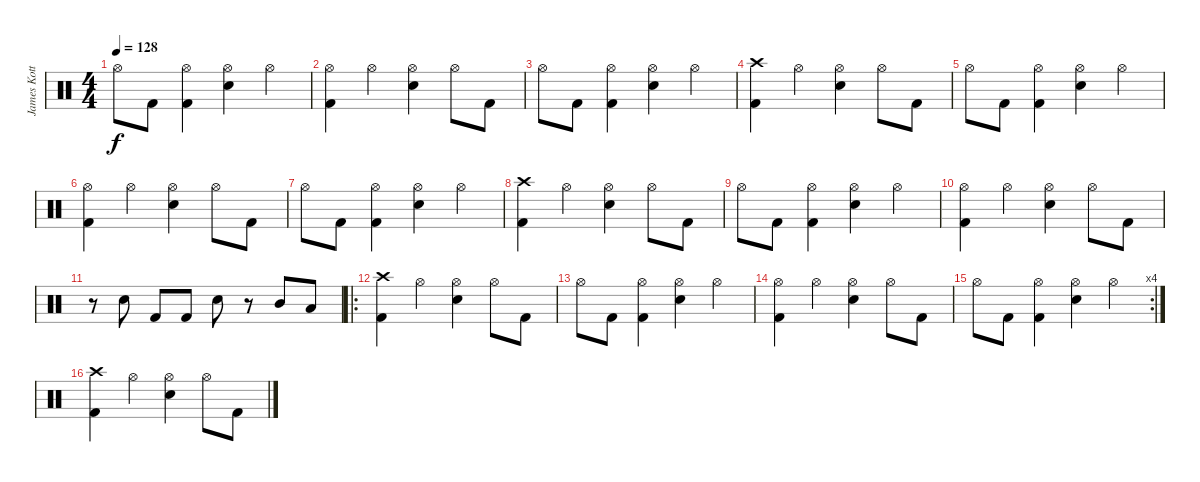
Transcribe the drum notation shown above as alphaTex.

\track ("James Kottak" "James Kott") {instrument percussion}
\staff {score}
\articulation defaults
\ts (4 4)
\tempo 128
\clef neutral
\ks c "Hi-Hat (open)".8{dy f} "Kick (hit) 2".8
("Hi-Hat (open)" "Kick (hit) 2").4 ("Hi-Hat (open)" "Electric Snare (hit)").4 "Hi-Hat (open)".4 |
("Hi-Hat (open)" "Kick (hit) 2").4 "Hi-Hat (open)".4 ("Hi-Hat (open)" "Electric Snare (hit)").4 "Hi-Hat (open)".8 "Kick (hit) 2".8 |
"Hi-Hat (open)".8 "Kick (hit) 2".8 ("Hi-Hat (open)" "Kick (hit) 2").4 ("Hi-Hat (open)" "Electric Snare (hit)").4 "Hi-Hat (open)".4 |
("Crash high (hit)" "Kick (hit) 2").4 "Hi-Hat (open)".4 ("Hi-Hat (open)" "Electric Snare (hit)").4 "Hi-Hat (open)".8 "Kick (hit) 2".8 |
"Hi-Hat (open)".8 "Kick (hit) 2".8 ("Hi-Hat (open)" "Kick (hit) 2").4 ("Hi-Hat (open)" "Electric Snare (hit)").4 "Hi-Hat (open)".4 |
("Hi-Hat (open)" "Kick (hit) 2").4 "Hi-Hat (open)".4 ("Hi-Hat (open)" "Electric Snare (hit)").4 "Hi-Hat (open)".8 "Kick (hit) 2".8 |
"Hi-Hat (open)".8 "Kick (hit) 2".8 ("Hi-Hat (open)" "Kick (hit) 2").4 ("Hi-Hat (open)" "Electric Snare (hit)").4 "Hi-Hat (open)".4 |
("Crash high (hit)" "Kick (hit) 2").4 "Hi-Hat (open)".4 ("Hi-Hat (open)" "Electric Snare (hit)").4 "Hi-Hat (open)".8 "Kick (hit) 2".8 |
"Hi-Hat (open)".8 "Kick (hit) 2".8 ("Hi-Hat (open)" "Kick (hit) 2").4 ("Hi-Hat (open)" "Electric Snare (hit)").4 "Hi-Hat (open)".4 |
("Hi-Hat (open)" "Kick (hit) 2").4 "Hi-Hat (open)".4 ("Hi-Hat (open)" "Electric Snare (hit)").4 "Hi-Hat (open)".8 "Kick (hit) 2".8 |
r.8 "Electric Snare (hit)".8 "Kick (hit) 2".8 "Kick (hit) 2".8 "Electric Snare (hit)".8 r.8 "Mid Tom (hit)".8 "Low Tom (hit)".8 |
\ro
("Crash high (hit)" "Kick (hit) 2").4 "Hi-Hat (open)".4 ("Hi-Hat (open)" "Electric Snare (hit)").4 "Hi-Hat (open)".8 "Kick (hit) 2".8 |
"Hi-Hat (open)".8 "Kick (hit) 2".8 ("Hi-Hat (open)" "Kick (hit) 2").4 ("Hi-Hat (open)" "Electric Snare (hit)").4 "Hi-Hat (open)".4 |
("Hi-Hat (open)" "Kick (hit) 2").4 "Hi-Hat (open)".4 ("Hi-Hat (open)" "Electric Snare (hit)").4 "Hi-Hat (open)".8 "Kick (hit) 2".8 |
\rc 4 "Hi-Hat (open)".8 "Kick (hit) 2".8
("Hi-Hat (open)" "Kick (hit) 2").4 ("Hi-Hat (open)" "Electric Snare (hit)").4 "Hi-Hat (open)".4 |
("Crash high (hit)" "Kick (hit) 2").4 "Hi-Hat (open)".4 ("Hi-Hat (open)" "Electric Snare (hit)").4 "Hi-Hat (open)".8 "Kick (hit) 2".8
